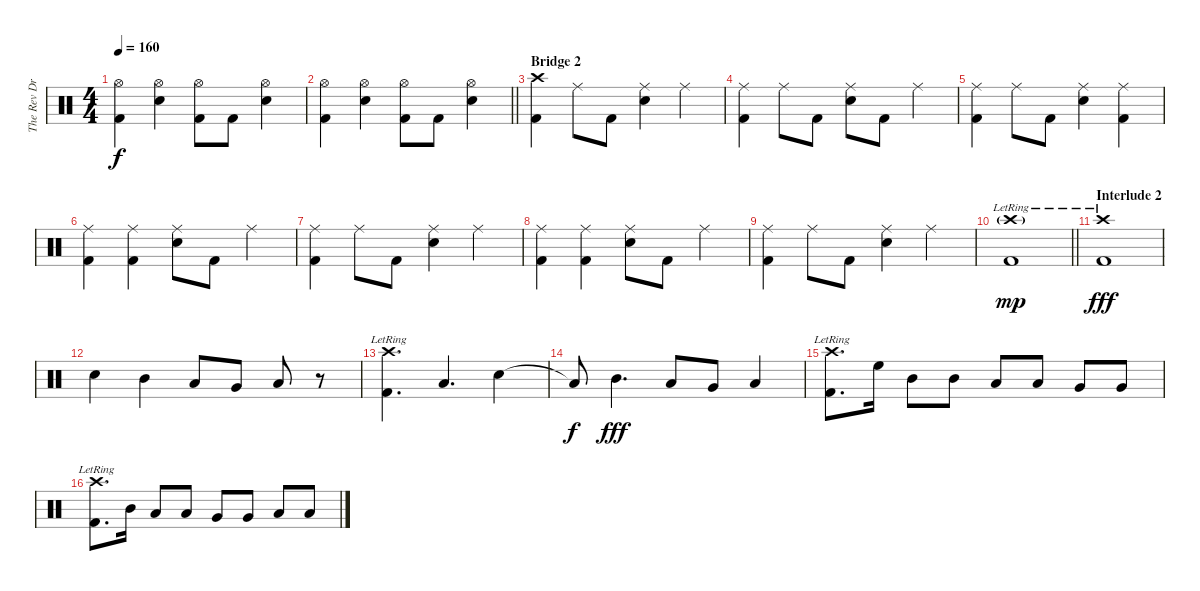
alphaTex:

\track ("The Rev Drum" "The Rev Dr") {instrument percussion}
\staff {score}
\articulation defaults
\ts (4 4)
\tempo 160
\clef neutral
\ks c
("Hi-Hat (open)" "Kick (hit) 2").4{dy f} ("Hi-Hat (open)" "Electric Snare (hit)").4 ("Hi-Hat (open)" "Kick (hit) 2").8 "Kick (hit) 2".8 ("Hi-Hat (open)" "Electric Snare (hit)").4 |
\barLineRight lightlight
("Hi-Hat (open)" "Kick (hit) 2").4 ("Hi-Hat (open)" "Electric Snare (hit)").4 ("Hi-Hat (open)" "Kick (hit) 2").8 "Kick (hit) 2".8 ("Hi-Hat (open)" "Electric Snare (hit)").4 |
\section ("" "Bridge 2")
("Crash high (hit)" "Kick (hit) 2").4 "Ride (middle)".8 "Kick (hit) 2".8 ("Ride (middle)" "Electric Snare (hit)").4 "Ride (middle)".4 |
("Ride (middle)" "Kick (hit) 2").4 "Ride (middle)".8 "Kick (hit) 2".8 ("Ride (middle)" "Electric Snare (hit)").8 "Kick (hit) 2".8 "Ride (middle)".4 |
("Ride (middle)" "Kick (hit) 2").4 "Ride (middle)".8 "Kick (hit) 2".8 ("Ride (middle)" "Electric Snare (hit)").4 ("Ride (middle)" "Kick (hit) 2").4 |
("Ride (middle)" "Kick (hit) 2").4 ("Ride (middle)" "Kick (hit) 2").4 ("Ride (middle)" "Electric Snare (hit)").8 "Kick (hit) 2".8 "Ride (middle)".4 |
("Ride (middle)" "Kick (hit) 2").4 "Ride (middle)".8 "Kick (hit) 2".8 ("Ride (middle)" "Electric Snare (hit)").4 "Ride (middle)".4 |
("Ride (middle)" "Kick (hit) 2").4 ("Ride (middle)" "Kick (hit) 2").4 ("Ride (middle)" "Electric Snare (hit)").8 "Kick (hit) 2".8 "Ride (middle)".4 |
("Ride (middle)" "Kick (hit) 2").4 "Ride (middle)".8 "Kick (hit) 2".8 ("Ride (middle)" "Electric Snare (hit)").4 "Ride (middle)".4 |
\barLineRight lightlight
("Crash high (hit)"{g} "Kick (hit) 2"{lr}).1{dy mp} |
\section ("" "Interlude 2")
("Crash high (hit)"{lr} "Kick (hit) 2").1{dy fff} |
"Electric Snare (hit)".4 "Mid Tom (hit)".4 "Low Tom (hit)".8 "Very Low Tom (hit)".8 "Low Floor Tom (hit)".8 r.8 |
("Crash high (hit)"{lr} "Kick (hit) 2").4{d} "Low Tom (hit)".4{d} "Electric Snare (hit)".4 |
"Low Tom (hit)"{t}.8{dy f} "Mid Tom (hit)".4{d dy fff} "Low Tom (hit)".8 "Very Low Tom (hit)".8 "Low Floor Tom (hit)".4 |
("Crash high (hit)"{lr} "Kick (hit) 2").8{d} "High Floor Tom (hit)".16 "Mid Tom (hit)".8 "Mid Tom (hit)".8 "Low Tom (hit)".8 "Low Tom (hit)".8 "Very Low Tom (hit)".8 "Very Low Tom (hit)".8 |
("Crash high (hit)"{lr} "Kick (hit) 2").8{d} "Mid Tom (hit)".16 "Low Tom (hit)".8 "Low Tom (hit)".8 "Very Low Tom (hit)".8 "Very Low Tom (hit)".8 "Low Floor Tom (hit)".8 "Low Floor Tom (hit)".8
